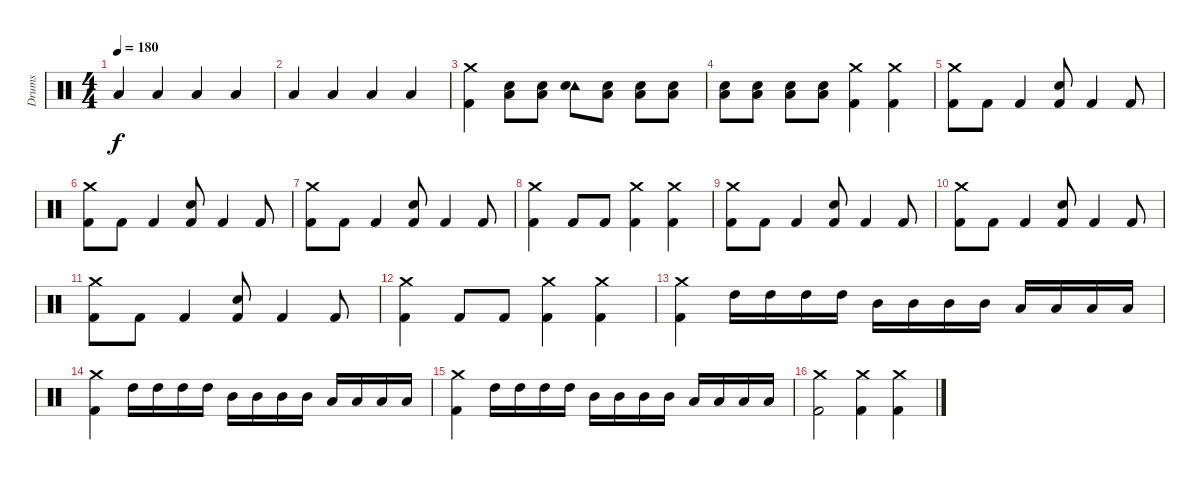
\track ("Drums" "Drums") {instrument percussion}
\staff {score}
\articulation defaults
\ts (4 4)
\tempo 180
\clef neutral
\ks c "Low Tom (hit)".4{dy f} "Low Tom (hit)".4 "Low Tom (hit)".4 "Low Tom (hit)".4
|
"Low Tom (hit)".4 "Low Tom (hit)".4 "Low Tom (hit)".4 "Low Tom (hit)".4 |
("Crash medium (hit)" "Kick (hit) 2").4 ("Low Tom (hit)" "Snare (hit) 2").8 ("Low Tom (hit)" "Snare (hit) 2").8 ("Tambourine (hit)" "Snare (hit) 2").8 ("Low Tom (hit)" "Snare (hit) 2").8 ("Low Tom (hit)" "Snare (hit) 2").8 ("Low Tom (hit)" "Snare (hit) 2").8 |
("Low Tom (hit)" "Snare (hit) 2").8 ("Low Tom (hit)" "Snare (hit) 2").8 ("Low Tom (hit)" "Snare (hit) 2").8 ("Low Tom (hit)" "Snare (hit) 2").8 ("Crash medium (hit)" "Kick (hit) 2").4 ("Crash medium (hit)" "Kick (hit) 2").4 |
("Crash medium (hit)" "Kick (hit) 2").8 "Kick (hit) 2".8 "Kick (hit) 2".4 ("Snare (hit) 2" "Kick (hit) 2").8 "Kick (hit) 2".4 "Kick (hit) 2".8 |
("Crash medium (hit)" "Kick (hit) 2").8 "Kick (hit) 2".8 "Kick (hit) 2".4 ("Snare (hit) 2" "Kick (hit) 2").8 "Kick (hit) 2".4 "Kick (hit) 2".8 |
("Crash medium (hit)" "Kick (hit) 2").8 "Kick (hit) 2".8 "Kick (hit) 2".4 ("Snare (hit) 2" "Kick (hit) 2").8 "Kick (hit) 2".4 "Kick (hit) 2".8 |
("Crash medium (hit)" "Kick (hit) 2").4 "Kick (hit) 2".8 "Kick (hit) 2".8 ("Crash medium (hit)" "Kick (hit) 2").4 ("Crash medium (hit)" "Kick (hit) 2").4 |
("Crash medium (hit)" "Kick (hit) 2").8 "Kick (hit) 2".8 "Kick (hit) 2".4 ("Snare (hit) 2" "Kick (hit) 2").8 "Kick (hit) 2".4 "Kick (hit) 2".8 |
("Crash medium (hit)" "Kick (hit) 2").8 "Kick (hit) 2".8 "Kick (hit) 2".4 ("Snare (hit) 2" "Kick (hit) 2").8 "Kick (hit) 2".4 "Kick (hit) 2".8 |
("Crash medium (hit)" "Kick (hit) 2").8 "Kick (hit) 2".8 "Kick (hit) 2".4 ("Snare (hit) 2" "Kick (hit) 2").8 "Kick (hit) 2".4 "Kick (hit) 2".8 |
("Crash medium (hit)" "Kick (hit) 2").4 "Kick (hit) 2".8 "Kick (hit) 2".8 ("Crash medium (hit)" "Kick (hit) 2").4 ("Crash medium (hit)" "Kick (hit) 2").4 |
("Crash medium (hit)" "Kick (hit) 2").4 "High Tom (hit)".16 "High Tom (hit)".16 "High Tom (hit)".16 "High Tom (hit)".16 "Mid Tom (hit)".16 "Mid Tom (hit)".16 "Mid Tom (hit)".16 "Mid Tom (hit)".16 "Low Tom (hit)".16 "Low Tom (hit)".16 "Low Tom (hit)".16 "Low Tom (hit)".16 |
("Crash medium (hit)" "Kick (hit) 2").4 "High Tom (hit)".16 "High Tom (hit)".16 "High Tom (hit)".16 "High Tom (hit)".16 "Mid Tom (hit)".16 "Mid Tom (hit)".16 "Mid Tom (hit)".16 "Mid Tom (hit)".16 "Low Tom (hit)".16 "Low Tom (hit)".16 "Low Tom (hit)".16 "Low Tom (hit)".16 |
("Crash medium (hit)" "Kick (hit) 2").4 "High Tom (hit)".16 "High Tom (hit)".16 "High Tom (hit)".16 "High Tom (hit)".16 "Mid Tom (hit)".16 "Mid Tom (hit)".16 "Mid Tom (hit)".16 "Mid Tom (hit)".16 "Low Tom (hit)".16 "Low Tom (hit)".16 "Low Tom (hit)".16 "Low Tom (hit)".16 |
("Crash medium (hit)" "Kick (hit) 2").2 ("Crash medium (hit)" "Kick (hit) 2").4 ("Crash medium (hit)" "Kick (hit) 2").4
